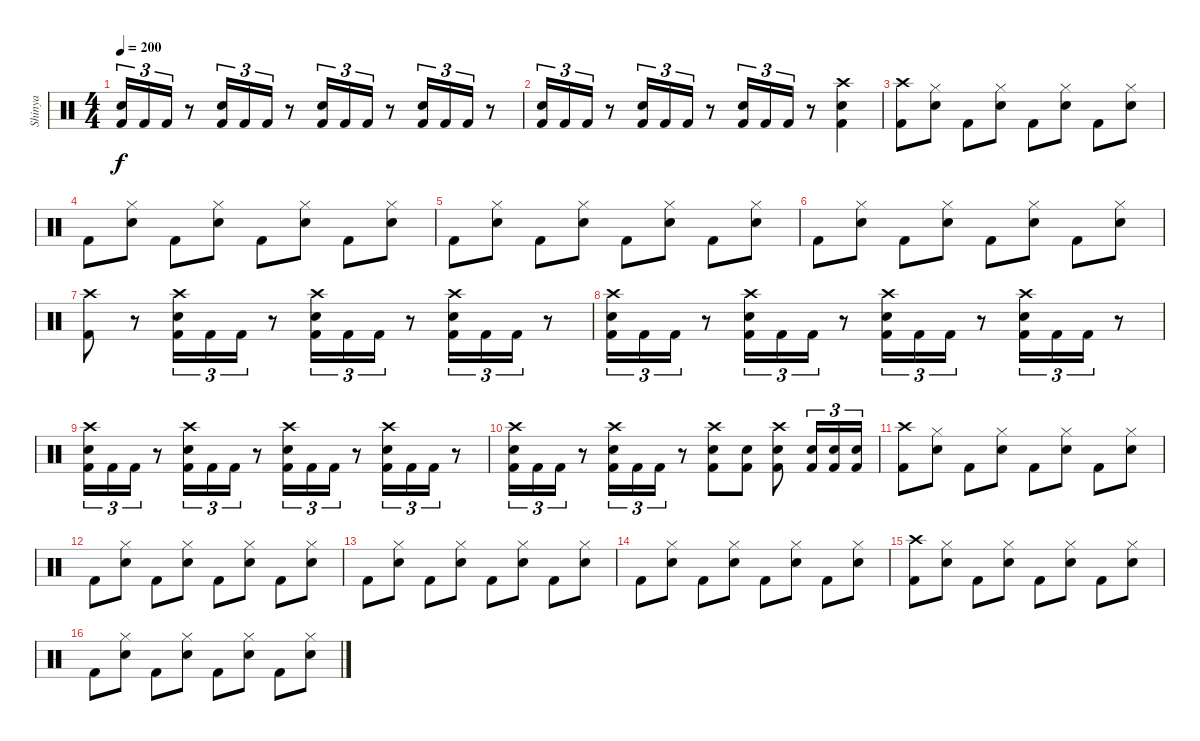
\track ("Shinya" "Shinya") {instrument percussion}
\staff {score}
\articulation defaults
\ts (4 4)
\tempo 200
\clef neutral
\ks c
("Electric Snare (hit)" "Kick (hit) 2").16{tu (3 2) dy f} "Kick (hit) 2".16{tu (3 2)} "Kick (hit) 2".16{tu (3 2)} r.8 ("Electric Snare (hit)" "Kick (hit) 2").16{tu (3 2)} "Kick (hit) 2".16{tu (3 2)} "Kick (hit) 2".16{tu (3 2)} r.8 ("Electric Snare (hit)" "Kick (hit) 2").16{tu (3 2)} "Kick (hit) 2".16{tu (3 2)} "Kick (hit) 2".16{tu (3 2)} r.8 ("Electric Snare (hit)" "Kick (hit) 2").16{tu (3 2)} "Kick (hit) 2".16{tu (3 2)} "Kick (hit) 2".16{tu (3 2)} r.8 |
("Electric Snare (hit)" "Kick (hit) 2").16{tu (3 2)} "Kick (hit) 2".16{tu (3 2)} "Kick (hit) 2".16{tu (3 2)} r.8 ("Electric Snare (hit)" "Kick (hit) 2").16{tu (3 2)} "Kick (hit) 2".16{tu (3 2)} "Kick (hit) 2".16{tu (3 2)} r.8 ("Electric Snare (hit)" "Kick (hit) 2").16{tu (3 2)} "Kick (hit) 2".16{tu (3 2)} "Kick (hit) 2".16{tu (3 2)} r.8 ("Crash high (hit)" "Electric Snare (hit)" "Kick (hit) 2").4 |
("Crash high (hit)" "Kick (hit) 2").8 ("Hi-Hat (closed)" "Electric Snare (hit)").8 "Kick (hit) 2".8 ("Hi-Hat (closed)" "Electric Snare (hit)").8 "Kick (hit) 2".8 ("Hi-Hat (closed)" "Electric Snare (hit)").8 "Kick (hit) 2".8 ("Hi-Hat (closed)" "Electric Snare (hit)").8 |
"Kick (hit) 2".8 ("Hi-Hat (closed)" "Electric Snare (hit)").8 "Kick (hit) 2".8 ("Hi-Hat (closed)" "Electric Snare (hit)").8 "Kick (hit) 2".8 ("Hi-Hat (closed)" "Electric Snare (hit)").8 "Kick (hit) 2".8 ("Hi-Hat (closed)" "Electric Snare (hit)").8 |
"Kick (hit) 2".8 ("Hi-Hat (closed)" "Electric Snare (hit)").8 "Kick (hit) 2".8 ("Hi-Hat (closed)" "Electric Snare (hit)").8 "Kick (hit) 2".8 ("Hi-Hat (closed)" "Electric Snare (hit)").8 "Kick (hit) 2".8 ("Hi-Hat (closed)" "Electric Snare (hit)").8 |
"Kick (hit) 2".8 ("Hi-Hat (closed)" "Electric Snare (hit)").8 "Kick (hit) 2".8 ("Hi-Hat (closed)" "Electric Snare (hit)").8 "Kick (hit) 2".8 ("Hi-Hat (closed)" "Electric Snare (hit)").8 "Kick (hit) 2".8 ("Hi-Hat (closed)" "Electric Snare (hit)").8 |
("Crash high (hit)" "Kick (hit) 2").8 r.8 ("Crash high (hit)" "Electric Snare (hit)" "Kick (hit) 2").16{tu (3 2)} "Kick (hit) 2".16{tu (3 2)} "Kick (hit) 2".16{tu (3 2)} r.8 ("Crash high (hit)" "Electric Snare (hit)" "Kick (hit) 2").16{tu (3 2)} "Kick (hit) 2".16{tu (3 2)} "Kick (hit) 2".16{tu (3 2)} r.8 ("Crash high (hit)" "Electric Snare (hit)" "Kick (hit) 2").16{tu (3 2)} "Kick (hit) 2".16{tu (3 2)} "Kick (hit) 2".16{tu (3 2)} r.8 |
("Crash high (hit)" "Electric Snare (hit)" "Kick (hit) 2").16{tu (3 2)} "Kick (hit) 2".16{tu (3 2)} "Kick (hit) 2".16{tu (3 2)} r.8 ("Crash high (hit)" "Electric Snare (hit)" "Kick (hit) 2").16{tu (3 2)} "Kick (hit) 2".16{tu (3 2)} "Kick (hit) 2".16{tu (3 2)} r.8 ("Crash high (hit)" "Electric Snare (hit)" "Kick (hit) 2").16{tu (3 2)} "Kick (hit) 2".16{tu (3 2)} "Kick (hit) 2".16{tu (3 2)} r.8 ("Crash high (hit)" "Electric Snare (hit)" "Kick (hit) 2").16{tu (3 2)} "Kick (hit) 2".16{tu (3 2)} "Kick (hit) 2".16{tu (3 2)} r.8 |
("Crash high (hit)" "Electric Snare (hit)" "Kick (hit) 2").16{tu (3 2)} "Kick (hit) 2".16{tu (3 2)} "Kick (hit) 2".16{tu (3 2)} r.8 ("Crash high (hit)" "Electric Snare (hit)" "Kick (hit) 2").16{tu (3 2)} "Kick (hit) 2".16{tu (3 2)} "Kick (hit) 2".16{tu (3 2)} r.8 ("Crash high (hit)" "Electric Snare (hit)" "Kick (hit) 2").16{tu (3 2)} "Kick (hit) 2".16{tu (3 2)} "Kick (hit) 2".16{tu (3 2)} r.8 ("Crash high (hit)" "Electric Snare (hit)" "Kick (hit) 2").16{tu (3 2)} "Kick (hit) 2".16{tu (3 2)} "Kick (hit) 2".16{tu (3 2)} r.8 |
("Crash high (hit)" "Electric Snare (hit)" "Kick (hit) 2").16{tu (3 2)} "Kick (hit) 2".16{tu (3 2)} "Kick (hit) 2".16{tu (3 2)} r.8 ("Crash high (hit)" "Electric Snare (hit)" "Kick (hit) 2").16{tu (3 2)} "Kick (hit) 2".16{tu (3 2)} "Kick (hit) 2".16{tu (3 2)} r.8 ("Crash high (hit)" "Electric Snare (hit)" "Kick (hit) 2").8 ("Electric Snare (hit)" "Kick (hit) 2").8 ("Crash high (hit)" "Electric Snare (hit)" "Kick (hit) 2").8 ("Electric Snare (hit)" "Kick (hit) 2").16{tu (3 2)} ("Electric Snare (hit)" "Kick (hit) 2").16{tu (3 2)} ("Electric Snare (hit)" "Kick (hit) 2").16{tu (3 2)} |
("Crash high (hit)" "Kick (hit) 2").8 ("Hi-Hat (closed)" "Electric Snare (hit)").8 "Kick (hit) 2".8 ("Hi-Hat (closed)" "Electric Snare (hit)").8 "Kick (hit) 2".8 ("Hi-Hat (closed)" "Electric Snare (hit)").8 "Kick (hit) 2".8 ("Hi-Hat (closed)" "Electric Snare (hit)").8 |
"Kick (hit) 2".8 ("Hi-Hat (closed)" "Electric Snare (hit)").8 "Kick (hit) 2".8 ("Hi-Hat (closed)" "Electric Snare (hit)").8 "Kick (hit) 2".8 ("Hi-Hat (closed)" "Electric Snare (hit)").8 "Kick (hit) 2".8 ("Hi-Hat (closed)" "Electric Snare (hit)").8 |
"Kick (hit) 2".8 ("Hi-Hat (closed)" "Electric Snare (hit)").8 "Kick (hit) 2".8 ("Hi-Hat (closed)" "Electric Snare (hit)").8 "Kick (hit) 2".8 ("Hi-Hat (closed)" "Electric Snare (hit)").8 "Kick (hit) 2".8 ("Hi-Hat (closed)" "Electric Snare (hit)").8 |
"Kick (hit) 2".8 ("Hi-Hat (closed)" "Electric Snare (hit)").8 "Kick (hit) 2".8 ("Hi-Hat (closed)" "Electric Snare (hit)").8 "Kick (hit) 2".8 ("Hi-Hat (closed)" "Electric Snare (hit)").8 "Kick (hit) 2".8 ("Hi-Hat (closed)" "Electric Snare (hit)").8 |
("Crash high (hit)" "Kick (hit) 2").8 ("Hi-Hat (closed)" "Electric Snare (hit)").8 "Kick (hit) 2".8 ("Hi-Hat (closed)" "Electric Snare (hit)").8 "Kick (hit) 2".8 ("Hi-Hat (closed)" "Electric Snare (hit)").8 "Kick (hit) 2".8 ("Hi-Hat (closed)" "Electric Snare (hit)").8 |
"Kick (hit) 2".8 ("Hi-Hat (closed)" "Electric Snare (hit)").8 "Kick (hit) 2".8 ("Hi-Hat (closed)" "Electric Snare (hit)").8 "Kick (hit) 2".8 ("Hi-Hat (closed)" "Electric Snare (hit)").8 "Kick (hit) 2".8 ("Hi-Hat (closed)" "Electric Snare (hit)").8
